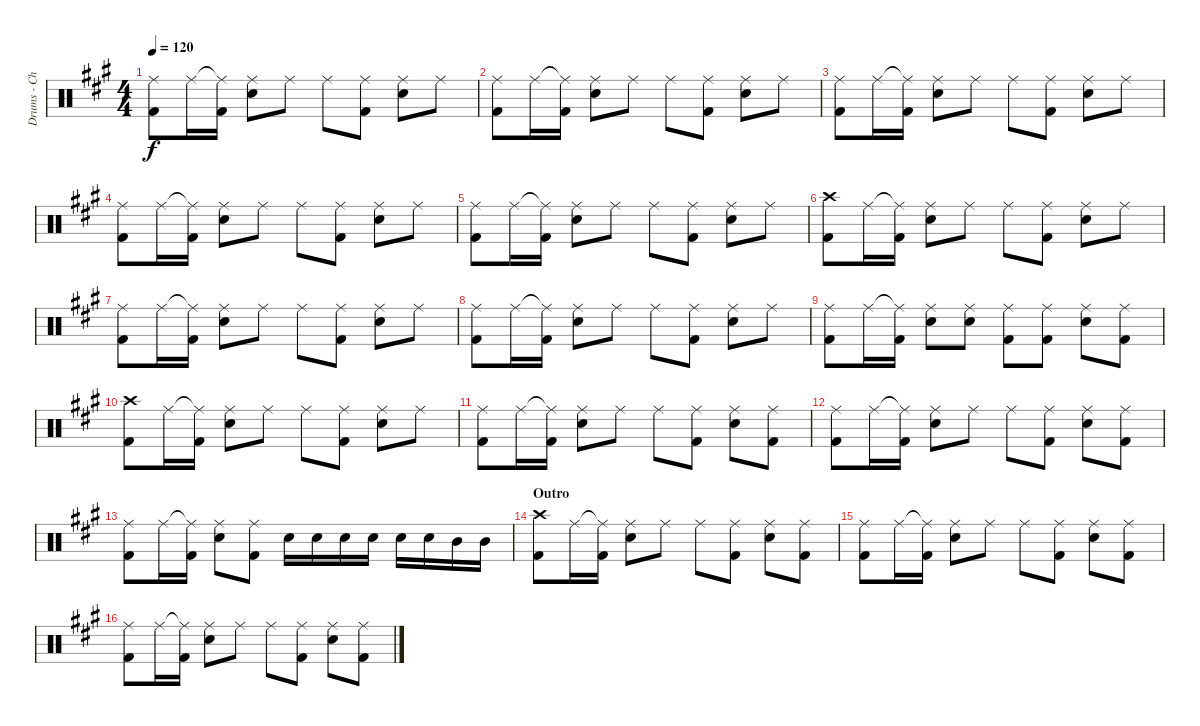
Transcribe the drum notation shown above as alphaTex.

\track ("Drums - Chad S" "Drums - Ch") {instrument percussion}
\staff {score}
\articulation defaults
\ts (4 4)
\tempo 120
\clef neutral
\ks f#minor
("Ride (middle)" "Kick (hit) 2").8{dy f} "Ride (middle)".16 ("Ride (middle)"{t} "Kick (hit) 2").16 ("Ride (middle)" "Snare (hit) 2").8 "Ride (middle)".8 "Ride (middle)".8 ("Ride (middle)" "Kick (hit) 2").8 ("Ride (middle)" "Snare (hit) 2").8 "Ride (middle)".8 |
("Ride (middle)" "Kick (hit) 2").8 "Ride (middle)".16 ("Ride (middle)"{t} "Kick (hit) 2").16 ("Ride (middle)" "Snare (hit) 2").8 "Ride (middle)".8 "Ride (middle)".8 ("Ride (middle)" "Kick (hit) 2").8 ("Ride (middle)" "Snare (hit) 2").8 "Ride (middle)".8 |
("Ride (middle)" "Kick (hit) 2").8 "Ride (middle)".16 ("Ride (middle)"{t} "Kick (hit) 2").16 ("Ride (middle)" "Snare (hit) 2").8 "Ride (middle)".8 "Ride (middle)".8 ("Ride (middle)" "Kick (hit) 2").8 ("Ride (middle)" "Snare (hit) 2").8 "Ride (middle)".8 |
("Ride (middle)" "Kick (hit) 2").8 "Ride (middle)".16 ("Ride (middle)"{t} "Kick (hit) 2").16 ("Ride (middle)" "Snare (hit) 2").8 "Ride (middle)".8 "Ride (middle)".8 ("Ride (middle)" "Kick (hit) 2").8 ("Ride (middle)" "Snare (hit) 2").8 "Ride (middle)".8 |
("Ride (middle)" "Kick (hit) 2").8 "Ride (middle)".16 ("Ride (middle)"{t} "Kick (hit) 2").16 ("Ride (middle)" "Snare (hit) 2").8 "Ride (middle)".8 "Ride (middle)".8 ("Ride (middle)" "Kick (hit) 2").8 ("Ride (middle)" "Snare (hit) 2").8 "Ride (middle)".8 |
("Crash high (hit)" "Kick (hit) 2").8 "Ride (middle)".16 ("Ride (middle)"{t} "Kick (hit) 2").16 ("Ride (middle)" "Snare (hit) 2").8 "Ride (middle)".8 "Ride (middle)".8 ("Ride (middle)" "Kick (hit) 2").8 ("Ride (middle)" "Snare (hit) 2").8 "Ride (middle)".8 |
("Ride (middle)" "Kick (hit) 2").8 "Ride (middle)".16 ("Ride (middle)"{t} "Kick (hit) 2").16 ("Ride (middle)" "Snare (hit) 2").8 "Ride (middle)".8 "Ride (middle)".8 ("Ride (middle)" "Kick (hit) 2").8 ("Ride (middle)" "Snare (hit) 2").8 "Ride (middle)".8 |
("Ride (middle)" "Kick (hit) 2").8 "Ride (middle)".16 ("Ride (middle)"{t} "Kick (hit) 2").16 ("Ride (middle)" "Snare (hit) 2").8 "Ride (middle)".8 "Ride (middle)".8 ("Ride (middle)" "Kick (hit) 2").8 ("Ride (middle)" "Snare (hit) 2").8 "Ride (middle)".8 |
("Ride (middle)" "Kick (hit) 2").8 "Ride (middle)".16 ("Ride (middle)"{t} "Kick (hit) 2").16 ("Ride (middle)" "Snare (hit) 2").8 ("Ride (middle)" "Snare (hit) 2").8 ("Ride (middle)" "Kick (hit) 2").8 ("Ride (middle)" "Kick (hit) 2").8 ("Ride (middle)" "Snare (hit) 2").8 ("Ride (middle)" "Kick (hit) 2").8 |
("Crash high (hit)" "Kick (hit) 2").8 "Ride (middle)".16 ("Ride (middle)"{t} "Kick (hit) 2").16 ("Ride (middle)" "Snare (hit) 2").8 "Ride (middle)".8 "Ride (middle)".8 ("Ride (middle)" "Kick (hit) 2").8 ("Ride (middle)" "Snare (hit) 2").8 "Ride (middle)".8 |
("Ride (middle)" "Kick (hit) 2").8 "Ride (middle)".16 ("Ride (middle)"{t} "Kick (hit) 2").16 ("Ride (middle)" "Snare (hit) 2").8 "Ride (middle)".8 "Ride (middle)".8 ("Ride (middle)" "Kick (hit) 2").8 ("Ride (middle)" "Snare (hit) 2").8 ("Ride (middle)" "Kick (hit) 2").8 |
("Ride (middle)" "Kick (hit) 2").8 "Ride (middle)".16 ("Ride (middle)"{t} "Kick (hit) 2").16 ("Ride (middle)" "Snare (hit) 2").8 "Ride (middle)".8 "Ride (middle)".8 ("Ride (middle)" "Kick (hit) 2").8 ("Ride (middle)" "Snare (hit) 2").8 ("Ride (middle)" "Kick (hit) 2").8 |
("Ride (middle)" "Kick (hit) 2").8 "Ride (middle)".16 ("Ride (middle)"{t} "Kick (hit) 2").16 ("Ride (middle)" "Snare (hit) 2").8 ("Ride (middle)" "Kick (hit) 2").8 "Snare (hit) 2".16 "Snare (hit) 2".16 "Snare (hit) 2".16 "Snare (hit) 2".16 "Snare (hit) 2".16 "Snare (hit) 2".16 "Mid Tom (hit)".16 "Mid Tom (hit)".16 |
\section ("" "Outro")
("Crash high (hit)" "Kick (hit) 2").8 "Ride (middle)".16 ("Ride (middle)"{t} "Kick (hit) 2").16 ("Ride (middle)" "Snare (hit) 2").8 "Ride (middle)".8 "Ride (middle)".8 ("Ride (middle)" "Kick (hit) 2").8 ("Ride (middle)" "Snare (hit) 2").8 ("Ride (middle)" "Kick (hit) 2").8 |
("Ride (middle)" "Kick (hit) 2").8 "Ride (middle)".16 ("Ride (middle)"{t} "Kick (hit) 2").16 ("Ride (middle)" "Snare (hit) 2").8 "Ride (middle)".8 "Ride (middle)".8 ("Ride (middle)" "Kick (hit) 2").8 ("Ride (middle)" "Snare (hit) 2").8 ("Ride (middle)" "Kick (hit) 2").8 |
("Ride (middle)" "Kick (hit) 2").8 "Ride (middle)".16 ("Ride (middle)"{t} "Kick (hit) 2").16 ("Ride (middle)" "Snare (hit) 2").8 "Ride (middle)".8 "Ride (middle)".8 ("Ride (middle)" "Kick (hit) 2").8 ("Ride (middle)" "Snare (hit) 2").8 ("Ride (middle)" "Kick (hit) 2").8
